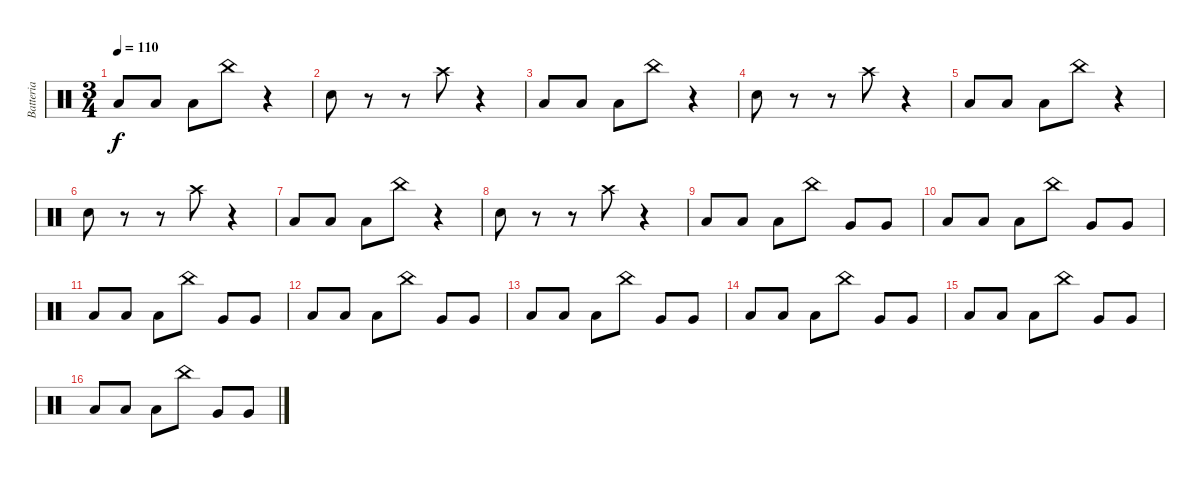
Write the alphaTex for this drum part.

\track ("Batteria" "Batteria") {instrument percussion}
\staff {score}
\articulation defaults
\ts (3 4)
\tempo 110
\clef neutral
\ks c "Low Tom (hit)".8{dy f} "Low Tom (hit)".8 "Low Tom (hit)".8 "China (hit)".8
r.4 |
"Electric Snare (hit)".8 r.8 r.8 "Crash high (hit)".8 r.4 |
"Low Tom (hit)".8 "Low Tom (hit)".8 "Low Tom (hit)".8 "China (hit)".8 r.4 |
"Electric Snare (hit)".8 r.8 r.8 "Crash high (hit)".8 r.4 |
"Low Tom (hit)".8 "Low Tom (hit)".8 "Low Tom (hit)".8 "China (hit)".8 r.4 |
"Electric Snare (hit)".8 r.8 r.8 "Crash high (hit)".8 r.4 |
"Low Tom (hit)".8 "Low Tom (hit)".8 "Low Tom (hit)".8 "China (hit)".8 r.4 |
"Electric Snare (hit)".8 r.8 r.8 "Crash high (hit)".8 r.4 |
"Low Tom (hit)".8 "Low Tom (hit)".8 "Low Tom (hit)".8 "China (hit)".8 "Very Low Tom (hit)".8 "Very Low Tom (hit)".8 |
"Low Tom (hit)".8 "Low Tom (hit)".8 "Low Tom (hit)".8 "China (hit)".8 "Very Low Tom (hit)".8 "Very Low Tom (hit)".8 |
"Low Tom (hit)".8 "Low Tom (hit)".8 "Low Tom (hit)".8 "China (hit)".8 "Very Low Tom (hit)".8 "Very Low Tom (hit)".8 |
"Low Tom (hit)".8 "Low Tom (hit)".8 "Low Tom (hit)".8 "China (hit)".8 "Very Low Tom (hit)".8 "Very Low Tom (hit)".8 |
"Low Tom (hit)".8 "Low Tom (hit)".8 "Low Tom (hit)".8 "China (hit)".8 "Very Low Tom (hit)".8 "Very Low Tom (hit)".8 |
"Low Tom (hit)".8 "Low Tom (hit)".8 "Low Tom (hit)".8 "China (hit)".8 "Very Low Tom (hit)".8 "Very Low Tom (hit)".8 |
"Low Tom (hit)".8 "Low Tom (hit)".8 "Low Tom (hit)".8 "China (hit)".8 "Very Low Tom (hit)".8 "Very Low Tom (hit)".8 |
"Low Tom (hit)".8 "Low Tom (hit)".8 "Low Tom (hit)".8 "China (hit)".8 "Very Low Tom (hit)".8 "Very Low Tom (hit)".8
